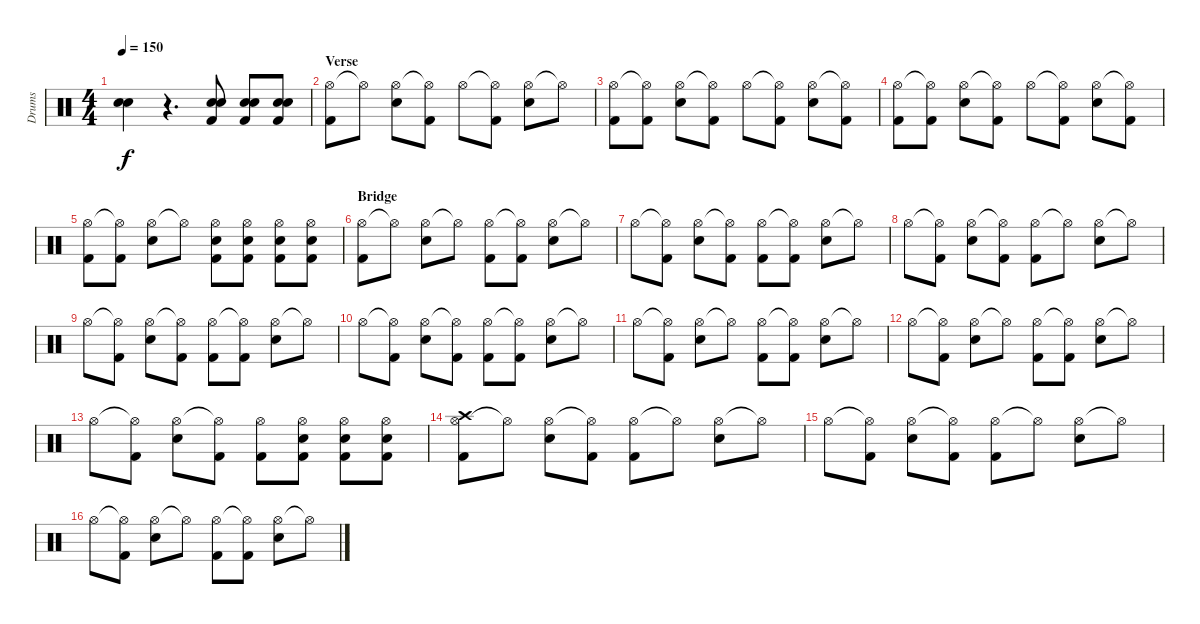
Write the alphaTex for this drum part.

\track ("Drums" "Drums") {instrument percussion}
\staff {score}
\articulation defaults
\ts (4 4)
\tempo 150
\clef neutral
\ks c
("Electric Snare (hit)" "Electric Snare (hit)").4{dy f} r.4{d} ("Electric Snare (hit)" "Kick (hit) 2" "Electric Snare (hit)").8 ("Electric Snare (hit)" "Kick (hit) 2" "Electric Snare (hit)").8 ("Electric Snare (hit)" "Kick (hit) 2" "Electric Snare (hit)").8 |
\section ("" "Verse")
("Hi-Hat (open)" "Kick (hit) 2").8 "Hi-Hat (open)"{t}.8 ("Hi-Hat (open)" "Electric Snare (hit)").8 ("Hi-Hat (open)"{t} "Kick (hit) 2").8 "Hi-Hat (open)".8 ("Hi-Hat (open)"{t} "Kick (hit) 2").8 ("Hi-Hat (open)" "Electric Snare (hit)").8 "Hi-Hat (open)"{t}.8 |
("Hi-Hat (open)" "Kick (hit) 2").8 ("Hi-Hat (open)"{t} "Kick (hit) 2").8 ("Hi-Hat (open)" "Electric Snare (hit)").8 ("Hi-Hat (open)"{t} "Kick (hit) 2").8 "Hi-Hat (open)".8 ("Hi-Hat (open)"{t} "Kick (hit) 2").8 ("Hi-Hat (open)" "Electric Snare (hit)").8 ("Hi-Hat (open)"{t} "Kick (hit) 2").8 |
("Hi-Hat (open)" "Kick (hit) 2").8 ("Hi-Hat (open)"{t} "Kick (hit) 2").8 ("Hi-Hat (open)" "Electric Snare (hit)").8 ("Hi-Hat (open)"{t} "Kick (hit) 2").8 "Hi-Hat (open)".8 ("Hi-Hat (open)"{t} "Kick (hit) 2").8 ("Hi-Hat (open)" "Electric Snare (hit)").8 ("Hi-Hat (open)"{t} "Kick (hit) 2").8 |
("Hi-Hat (open)" "Kick (hit) 2").8 ("Hi-Hat (open)"{t} "Kick (hit) 2").8 ("Hi-Hat (open)" "Electric Snare (hit)").8 "Hi-Hat (open)"{t}.8 ("Hi-Hat (open)" "Kick (hit) 2" "Electric Snare (hit)").8 ("Hi-Hat (open)" "Kick (hit) 2" "Electric Snare (hit)").8 ("Hi-Hat (open)" "Kick (hit) 2" "Electric Snare (hit)").8 ("Hi-Hat (open)" "Kick (hit) 2" "Electric Snare (hit)").8 |
\section ("" "Bridge")
("Hi-Hat (open)" "Kick (hit) 2").8 "Hi-Hat (open)"{t}.8 ("Hi-Hat (open)" "Electric Snare (hit)").8 "Hi-Hat (open)"{t}.8 ("Hi-Hat (open)" "Kick (hit) 2").8 ("Hi-Hat (open)"{t} "Kick (hit) 2").8 ("Hi-Hat (open)" "Electric Snare (hit)").8 "Hi-Hat (open)"{t}.8 |
"Hi-Hat (open)".8 ("Hi-Hat (open)"{t} "Kick (hit) 2").8 ("Hi-Hat (open)" "Electric Snare (hit)").8 ("Hi-Hat (open)"{t} "Kick (hit) 2").8 ("Hi-Hat (open)" "Kick (hit) 2").8 ("Hi-Hat (open)"{t} "Kick (hit) 2").8 ("Hi-Hat (open)" "Electric Snare (hit)").8 "Hi-Hat (open)"{t}.8 |
"Hi-Hat (open)".8 ("Hi-Hat (open)"{t} "Kick (hit) 2").8 ("Hi-Hat (open)" "Electric Snare (hit)").8 ("Hi-Hat (open)"{t} "Kick (hit) 2").8 ("Hi-Hat (open)" "Kick (hit) 2").8 "Hi-Hat (open)"{t}.8 ("Hi-Hat (open)" "Electric Snare (hit)").8 "Hi-Hat (open)"{t}.8 |
"Hi-Hat (open)".8 ("Hi-Hat (open)"{t} "Kick (hit) 2").8 ("Hi-Hat (open)" "Electric Snare (hit)").8 ("Hi-Hat (open)"{t} "Kick (hit) 2").8 ("Hi-Hat (open)" "Kick (hit) 2").8 ("Hi-Hat (open)"{t} "Kick (hit) 2").8 ("Hi-Hat (open)" "Electric Snare (hit)").8 "Hi-Hat (open)"{t}.8 |
"Hi-Hat (open)".8 ("Hi-Hat (open)"{t} "Kick (hit) 2").8 ("Hi-Hat (open)" "Electric Snare (hit)").8 ("Hi-Hat (open)"{t} "Kick (hit) 2").8 ("Hi-Hat (open)" "Kick (hit) 2").8 ("Hi-Hat (open)"{t} "Kick (hit) 2").8 ("Hi-Hat (open)" "Electric Snare (hit)").8 "Hi-Hat (open)"{t}.8 |
"Hi-Hat (open)".8 ("Hi-Hat (open)"{t} "Kick (hit) 2").8 ("Hi-Hat (open)" "Electric Snare (hit)").8 "Hi-Hat (open)"{t}.8 ("Hi-Hat (open)" "Kick (hit) 2").8 ("Hi-Hat (open)"{t} "Kick (hit) 2").8 ("Hi-Hat (open)" "Electric Snare (hit)").8 "Hi-Hat (open)"{t}.8 |
"Hi-Hat (open)".8 ("Hi-Hat (open)"{t} "Kick (hit) 2").8 ("Hi-Hat (open)" "Electric Snare (hit)").8 "Hi-Hat (open)"{t}.8 ("Hi-Hat (open)" "Kick (hit) 2").8 ("Hi-Hat (open)"{t} "Kick (hit) 2").8 ("Hi-Hat (open)" "Electric Snare (hit)").8 "Hi-Hat (open)"{t}.8 |
"Hi-Hat (open)".8 ("Hi-Hat (open)"{t} "Kick (hit) 2").8 ("Hi-Hat (open)" "Electric Snare (hit)").8 ("Hi-Hat (open)"{t} "Kick (hit) 2").8 ("Hi-Hat (open)" "Kick (hit) 2").8 ("Hi-Hat (open)" "Kick (hit) 2" "Electric Snare (hit)").8 ("Hi-Hat (open)" "Kick (hit) 2" "Electric Snare (hit)").8 ("Hi-Hat (open)" "Kick (hit) 2" "Electric Snare (hit)").8 |
("Hi-Hat (open)" "Kick (hit) 2" "Crash high (hit)").8 "Hi-Hat (open)"{t}.8 ("Hi-Hat (open)" "Electric Snare (hit)").8 ("Hi-Hat (open)"{t} "Kick (hit) 2").8 ("Hi-Hat (open)" "Kick (hit) 2").8 "Hi-Hat (open)"{t}.8 ("Hi-Hat (open)" "Electric Snare (hit)").8 "Hi-Hat (open)"{t}.8 |
"Hi-Hat (open)".8 ("Hi-Hat (open)"{t} "Kick (hit) 2").8 ("Hi-Hat (open)" "Electric Snare (hit)").8 ("Hi-Hat (open)"{t} "Kick (hit) 2").8 ("Hi-Hat (open)" "Kick (hit) 2").8 "Hi-Hat (open)"{t}.8 ("Hi-Hat (open)" "Electric Snare (hit)").8 "Hi-Hat (open)"{t}.8 |
"Hi-Hat (open)".8 ("Hi-Hat (open)"{t} "Kick (hit) 2").8 ("Hi-Hat (open)" "Electric Snare (hit)").8 "Hi-Hat (open)"{t}.8 ("Hi-Hat (open)" "Kick (hit) 2").8 ("Hi-Hat (open)"{t} "Kick (hit) 2").8 ("Hi-Hat (open)" "Electric Snare (hit)").8 "Hi-Hat (open)"{t}.8
